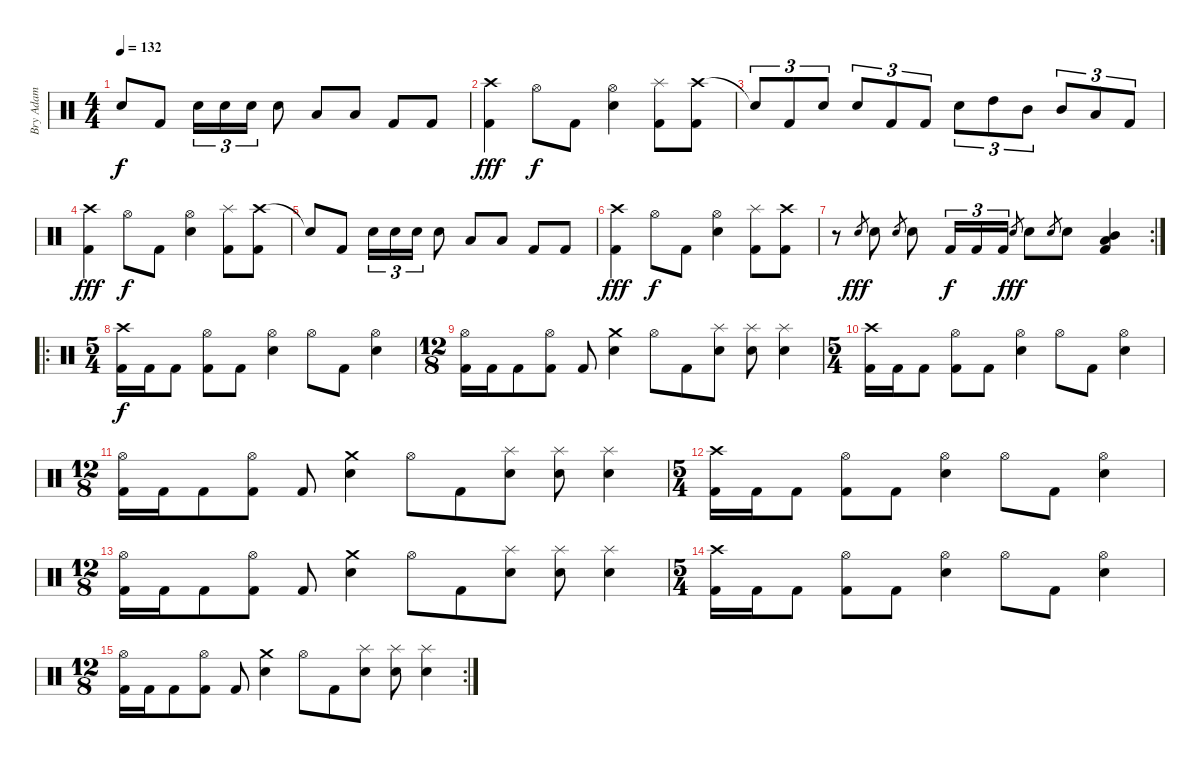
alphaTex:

\track ("Bry Adam" "Bry Adam") {instrument percussion}
\staff {score}
\articulation defaults
\ts (4 4)
\tempo 132
\clef neutral
\ks c "Snare (hit)"{t}.8{dy f} "Kick (hit) 2".8 "Snare (hit) 2".16{tu (3 2)} "Snare (hit) 2".16{tu (3 2)} "Snare (hit) 2".16{tu (3 2)} "Snare (hit) 2".8 "Low Tom (hit)".8 "Low Tom (hit)".8 "Kick (hit) 2".8 "Kick (hit) 2".8
|
("Crash high (hit)" "Kick (hit) 2").4{dy fff} "Hi-Hat (open)".8{dy f} "Kick (hit) 2".8 ("Hi-Hat (open)" "Snare (hit) 2").4 ("Splash (hit)" "Kick (hit) 2").8 ("Crash high (hit)" "Kick (hit) 2").8 |
"Snare (hit)"{t}.8{tu (3 2)} "Kick (hit) 2".8{tu (3 2)} "Snare (hit) 2".8{tu (3 2)} "Snare (hit) 2".8{tu (3 2)} "Kick (hit) 2".8{tu (3 2)} "Kick (hit) 2".8{tu (3 2)} "Snare (hit) 2".8{tu (3 2)} "High Tom (hit)".8{tu (3 2)} "Mid Tom (hit)".8{tu (3 2)} "Mid Tom (hit)".8{tu (3 2)} "Low Tom (hit)".8{tu (3 2)} "Kick (hit) 2".8{tu (3 2)} |
("Crash high (hit)" "Kick (hit) 2").4{dy fff} "Hi-Hat (open)".8{dy f} "Kick (hit) 2".8 ("Hi-Hat (open)" "Snare (hit) 2").4 ("Splash (hit)" "Kick (hit) 2").8 ("Crash high (hit)" "Kick (hit) 2").8 |
"Snare (hit)"{t}.8 "Kick (hit) 2".8 "Snare (hit) 2".16{tu (3 2)} "Snare (hit) 2".16{tu (3 2)} "Snare (hit) 2".16{tu (3 2)} "Snare (hit) 2".8 "Low Tom (hit)".8 "Low Tom (hit)".8 "Kick (hit) 2".8 "Kick (hit) 2".8 |
("Crash high (hit)" "Kick (hit) 2").4{dy fff} "Hi-Hat (open)".8{dy f} "Kick (hit) 2".8 ("Hi-Hat (open)" "Snare (hit) 2").4 ("Splash (hit)" "Kick (hit) 2").8 ("Crash high (hit)" "Kick (hit) 2").8 |
\rc 2
r.8 "Snare (hit) 2".8{gr dy fff} "Snare (hit) 2".8 "Snare (hit) 2".8{gr} "Snare (hit) 2".8 "Kick (hit) 2".16{tu (3 2) dy f} "Kick (hit) 2".16{tu (3 2)} "Kick (hit) 2".16{tu (3 2)} "Snare (hit) 2".8{gr dy fff} "Snare (hit) 2".8 "Snare (hit) 2".8{gr} "Snare (hit) 2".8 ("Mid Tom (hit)" "Low Tom (hit)" "Kick (hit) 2").4 |
\ro
\ts (5 4)
("Crash high (hit)" "Kick (hit) 2").16{dy f} "Kick (hit) 2".16 "Kick (hit) 2".8 ("Hi-Hat (open)" "Kick (hit) 2").8 "Kick (hit) 2".8 ("Hi-Hat (open)" "Snare (hit) 2").4 "Hi-Hat (open)".8 "Kick (hit) 2".8 ("Hi-Hat (open)" "Snare (hit) 2").4 |
\ts (12 8)
("Hi-Hat (open)" "Kick (hit) 2").16 "Kick (hit) 2".16 "Kick (hit) 2".8 ("Hi-Hat (open)" "Kick (hit) 2").8 "Kick (hit) 2".8 ("Crash medium (hit)" "Snare (hit) 2").4 "Hi-Hat (open)".8 "Kick (hit) 2".8 ("Splash (hit)" "Snare (hit) 2").8 ("Splash (hit)" "Snare (hit) 2").8 ("Splash (hit)" "Snare (hit) 2").4 |
\ts (5 4)
("Crash high (hit)" "Kick (hit) 2").16 "Kick (hit) 2".16 "Kick (hit) 2".8 ("Hi-Hat (open)" "Kick (hit) 2").8 "Kick (hit) 2".8 ("Hi-Hat (open)" "Snare (hit) 2").4 "Hi-Hat (open)".8 "Kick (hit) 2".8 ("Hi-Hat (open)" "Snare (hit) 2").4 |
\ts (12 8)
("Hi-Hat (open)" "Kick (hit) 2").16 "Kick (hit) 2".16 "Kick (hit) 2".8 ("Hi-Hat (open)" "Kick (hit) 2").8 "Kick (hit) 2".8 ("Crash medium (hit)" "Snare (hit) 2").4 "Hi-Hat (open)".8 "Kick (hit) 2".8 ("Splash (hit)" "Snare (hit) 2").8 ("Splash (hit)" "Snare (hit) 2").8 ("Splash (hit)" "Snare (hit) 2").4 |
\ts (5 4)
("Crash high (hit)" "Kick (hit) 2").16 "Kick (hit) 2".16 "Kick (hit) 2".8 ("Hi-Hat (open)" "Kick (hit) 2").8 "Kick (hit) 2".8 ("Hi-Hat (open)" "Snare (hit) 2").4 "Hi-Hat (open)".8 "Kick (hit) 2".8 ("Hi-Hat (open)" "Snare (hit) 2").4 |
\ts (12 8)
("Hi-Hat (open)" "Kick (hit) 2").16 "Kick (hit) 2".16 "Kick (hit) 2".8 ("Hi-Hat (open)" "Kick (hit) 2").8 "Kick (hit) 2".8 ("Crash medium (hit)" "Snare (hit) 2").4 "Hi-Hat (open)".8 "Kick (hit) 2".8 ("Splash (hit)" "Snare (hit) 2").8 ("Splash (hit)" "Snare (hit) 2").8 ("Splash (hit)" "Snare (hit) 2").4 |
\ts (5 4)
("Crash high (hit)" "Kick (hit) 2").16 "Kick (hit) 2".16 "Kick (hit) 2".8 ("Hi-Hat (open)" "Kick (hit) 2").8 "Kick (hit) 2".8 ("Hi-Hat (open)" "Snare (hit) 2").4 "Hi-Hat (open)".8 "Kick (hit) 2".8 ("Hi-Hat (open)" "Snare (hit) 2").4 |
\rc 2
\ts (12 8)
("Hi-Hat (open)" "Kick (hit) 2").16 "Kick (hit) 2".16 "Kick (hit) 2".8 ("Hi-Hat (open)" "Kick (hit) 2").8 "Kick (hit) 2".8 ("Crash medium (hit)" "Snare (hit) 2").4 "Hi-Hat (open)".8 "Kick (hit) 2".8 ("Splash (hit)" "Snare (hit) 2").8 ("Splash (hit)" "Snare (hit) 2").8 ("Splash (hit)" "Snare (hit) 2").4
